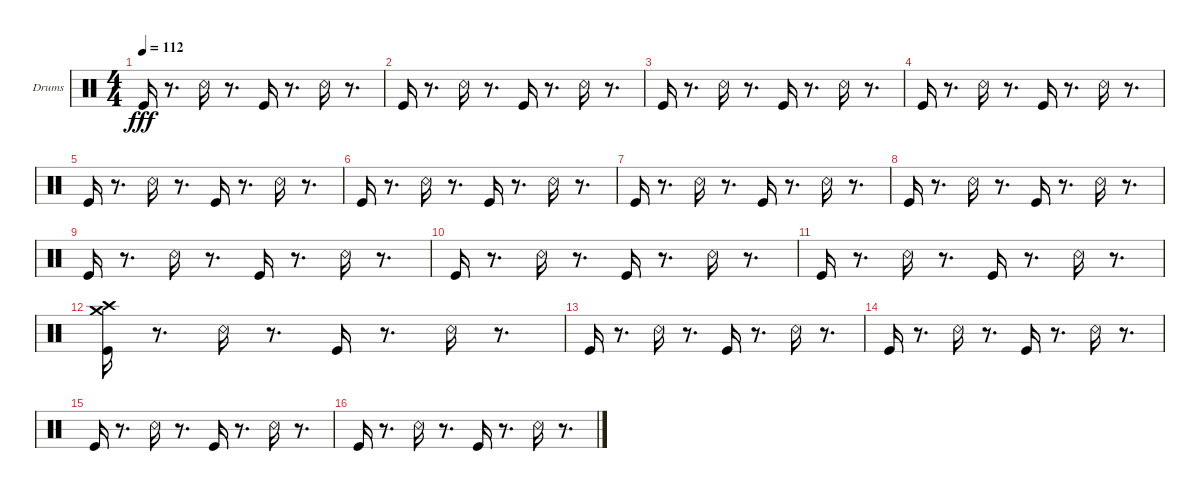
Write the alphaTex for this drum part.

\bracketExtendMode groupsimilarinstruments
\firstSystemTrackNameOrientation horizontal
\otherSystemsTrackNameOrientation horizontal
\track ("drams" "Drums") {instrument percussion}
\staff {score}
\articulation defaults
\ts (4 4)
\tempo 112
\clef neutral
\ks c "Kick (hit)".16{dy fff}
r.8{d} "Snare (rim shot)".16 r.8{d} "Kick (hit)".16 r.8{d} "Snare (rim shot)".16 r.8{d} |
"Kick (hit)".16 r.8{d} "Snare (rim shot)".16 r.8{d} "Kick (hit)".16 r.8{d} "Snare (rim shot)".16 r.8{d} |
"Kick (hit)".16 r.8{d} "Snare (rim shot)".16 r.8{d} "Kick (hit)".16 r.8{d} "Snare (rim shot)".16 r.8{d} |
"Kick (hit)".16 r.8{d} "Snare (rim shot)".16 r.8{d} "Kick (hit)".16 r.8{d} "Snare (rim shot)".16 r.8{d} |
"Kick (hit)".16 r.8{d} "Snare (rim shot)".16 r.8{d} "Kick (hit)".16 r.8{d} "Snare (rim shot)".16 r.8{d} |
"Kick (hit)".16 r.8{d} "Snare (rim shot)".16 r.8{d} "Kick (hit)".16 r.8{d} "Snare (rim shot)".16 r.8{d} |
"Kick (hit)".16 r.8{d} "Snare (rim shot)".16 r.8{d} "Kick (hit)".16 r.8{d} "Snare (rim shot)".16 r.8{d} |
"Kick (hit)".16 r.8{d} "Snare (rim shot)".16 r.8{d} "Kick (hit)".16 r.8{d} "Snare (rim shot)".16 r.8{d} |
"Kick (hit)".16 r.8{d} "Snare (rim shot)".16 r.8{d} "Kick (hit)".16 r.8{d} "Snare (rim shot)".16 r.8{d} |
"Kick (hit)".16 r.8{d} "Snare (rim shot)".16 r.8{d} "Kick (hit)".16 r.8{d} "Snare (rim shot)".16 r.8{d} |
"Kick (hit)".16 r.8{d} "Snare (rim shot)".16 r.8{d} "Kick (hit)".16 r.8{d} "Snare (rim shot)".16 r.8{d} |
("Kick (hit)" "Crash high (hit)" "Crash medium (hit)").16 r.8{d} "Snare (rim shot)".16 r.8{d} "Kick (hit)".16 r.8{d} "Snare (rim shot)".16 r.8{d} |
"Kick (hit)".16 r.8{d} "Snare (rim shot)".16 r.8{d} "Kick (hit)".16 r.8{d} "Snare (rim shot)".16 r.8{d} |
"Kick (hit)".16 r.8{d} "Snare (rim shot)".16 r.8{d} "Kick (hit)".16 r.8{d} "Snare (rim shot)".16 r.8{d} |
"Kick (hit)".16 r.8{d} "Snare (rim shot)".16 r.8{d} "Kick (hit)".16 r.8{d} "Snare (rim shot)".16 r.8{d} |
"Kick (hit)".16 r.8{d} "Snare (rim shot)".16 r.8{d} "Kick (hit)".16 r.8{d} "Snare (rim shot)".16 r.8{d}
